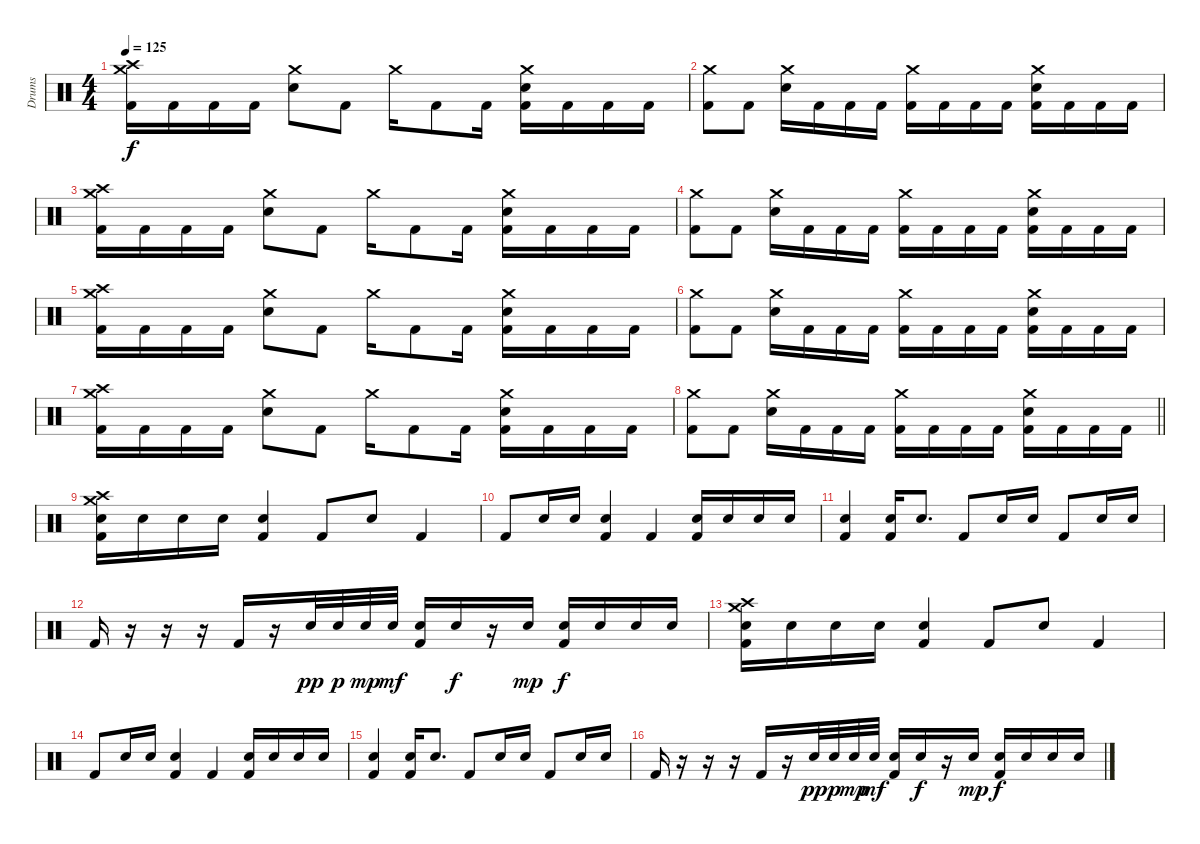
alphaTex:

\track ("Drums" "Drums") {instrument percussion}
\staff {score}
\articulation defaults
\ts (4 4)
\section ("" "")
\tempo 125
\clef neutral
\ks c
("Crash medium (hit)" "Crash high (hit)" "Kick (hit) 2").16{dy f} "Kick (hit) 2".16 "Kick (hit) 2".16 "Kick (hit) 2".16 ("Crash medium (hit)" "Snare (hit) 2").8 "Kick (hit) 2".8 "Crash medium (hit)".16 "Kick (hit) 2".8 "Kick (hit) 2".16 ("Crash medium (hit)" "Snare (hit) 2" "Kick (hit) 2").16 "Kick (hit) 2".16 "Kick (hit) 2".16 "Kick (hit) 2".16 |
("Crash medium (hit)" "Kick (hit) 2").8 "Kick (hit) 2".8 ("Crash medium (hit)" "Snare (hit) 2").16 "Kick (hit) 2".16 "Kick (hit) 2".16 "Kick (hit) 2".16 ("Crash medium (hit)" "Kick (hit) 2").16 "Kick (hit) 2".16 "Kick (hit) 2".16 "Kick (hit) 2".16 ("Crash medium (hit)" "Snare (hit) 2" "Kick (hit) 2").16 "Kick (hit) 2".16 "Kick (hit) 2".16 "Kick (hit) 2".16 |
("Crash medium (hit)" "Crash high (hit)" "Kick (hit) 2").16 "Kick (hit) 2".16 "Kick (hit) 2".16 "Kick (hit) 2".16 ("Crash medium (hit)" "Snare (hit) 2").8 "Kick (hit) 2".8 "Crash medium (hit)".16 "Kick (hit) 2".8 "Kick (hit) 2".16 ("Crash medium (hit)" "Snare (hit) 2" "Kick (hit) 2").16 "Kick (hit) 2".16 "Kick (hit) 2".16 "Kick (hit) 2".16 |
("Crash medium (hit)" "Kick (hit) 2").8 "Kick (hit) 2".8 ("Crash medium (hit)" "Snare (hit) 2").16 "Kick (hit) 2".16 "Kick (hit) 2".16 "Kick (hit) 2".16 ("Crash medium (hit)" "Kick (hit) 2").16 "Kick (hit) 2".16 "Kick (hit) 2".16 "Kick (hit) 2".16 ("Crash medium (hit)" "Snare (hit) 2" "Kick (hit) 2").16 "Kick (hit) 2".16 "Kick (hit) 2".16 "Kick (hit) 2".16 |
("Crash medium (hit)" "Crash high (hit)" "Kick (hit) 2").16 "Kick (hit) 2".16 "Kick (hit) 2".16 "Kick (hit) 2".16 ("Crash medium (hit)" "Snare (hit) 2").8 "Kick (hit) 2".8 "Crash medium (hit)".16 "Kick (hit) 2".8 "Kick (hit) 2".16 ("Crash medium (hit)" "Snare (hit) 2" "Kick (hit) 2").16 "Kick (hit) 2".16 "Kick (hit) 2".16 "Kick (hit) 2".16 |
("Crash medium (hit)" "Kick (hit) 2").8 "Kick (hit) 2".8 ("Crash medium (hit)" "Snare (hit) 2").16 "Kick (hit) 2".16 "Kick (hit) 2".16 "Kick (hit) 2".16 ("Crash medium (hit)" "Kick (hit) 2").16 "Kick (hit) 2".16 "Kick (hit) 2".16 "Kick (hit) 2".16 ("Crash medium (hit)" "Snare (hit) 2" "Kick (hit) 2").16 "Kick (hit) 2".16 "Kick (hit) 2".16 "Kick (hit) 2".16 |
("Crash medium (hit)" "Crash high (hit)" "Kick (hit) 2").16 "Kick (hit) 2".16 "Kick (hit) 2".16 "Kick (hit) 2".16 ("Crash medium (hit)" "Snare (hit) 2").8 "Kick (hit) 2".8 "Crash medium (hit)".16 "Kick (hit) 2".8 "Kick (hit) 2".16 ("Crash medium (hit)" "Snare (hit) 2" "Kick (hit) 2").16 "Kick (hit) 2".16 "Kick (hit) 2".16 "Kick (hit) 2".16 |
\barLineRight lightlight
("Crash medium (hit)" "Kick (hit) 2").8 "Kick (hit) 2".8 ("Crash medium (hit)" "Snare (hit) 2").16 "Kick (hit) 2".16 "Kick (hit) 2".16 "Kick (hit) 2".16 ("Crash medium (hit)" "Kick (hit) 2").16 "Kick (hit) 2".16 "Kick (hit) 2".16 "Kick (hit) 2".16 ("Crash medium (hit)" "Snare (hit) 2" "Kick (hit) 2").16 "Kick (hit) 2".16 "Kick (hit) 2".16 "Kick (hit) 2".16 |
\section ("" "")
("Crash medium (hit)" "Crash high (hit)" "Snare (hit) 2" "Kick (hit) 2").16 "Snare (hit) 2".16 "Snare (hit) 2".16 "Snare (hit) 2".16 ("Snare (hit) 2" "Kick (hit) 2").4 "Kick (hit) 2".8 "Snare (hit) 2".8 "Kick (hit) 2".4 |
"Kick (hit) 2".8 "Snare (hit) 2".16 "Snare (hit) 2".16 ("Snare (hit) 2" "Kick (hit) 2").4 "Kick (hit) 2".4 ("Snare (hit) 2" "Kick (hit) 2").16 "Snare (hit) 2".16 "Snare (hit) 2".16 "Snare (hit) 2".16 |
("Snare (hit) 2" "Kick (hit) 2").4 ("Snare (hit) 2" "Kick (hit) 2").16 "Snare (hit) 2".8{d} "Kick (hit) 2".8 "Snare (hit) 2".16 "Snare (hit) 2".16 "Kick (hit) 2".8 "Snare (hit) 2".16 "Snare (hit) 2".16 |
"Kick (hit) 2".16 r.16 r.16 r.16 "Kick (hit) 2".16 r.16 "Snare (hit) 2".32{dy pp} "Snare (hit) 2".32{dy p} "Snare (hit) 2".32{dy mp} "Snare (hit) 2".32{dy mf} ("Snare (hit) 2" "Kick (hit) 2").16 "Snare (hit) 2".16{dy f} r.16 "Snare (hit) 2".16{dy mp} ("Snare (hit) 2" "Kick (hit) 2").16{dy f} "Snare (hit) 2".16 "Snare (hit) 2".16 "Snare (hit) 2".16 |
("Crash medium (hit)" "Crash high (hit)" "Snare (hit) 2" "Kick (hit) 2").16 "Snare (hit) 2".16 "Snare (hit) 2".16 "Snare (hit) 2".16 ("Snare (hit) 2" "Kick (hit) 2").4 "Kick (hit) 2".8 "Snare (hit) 2".8 "Kick (hit) 2".4 |
"Kick (hit) 2".8 "Snare (hit) 2".16 "Snare (hit) 2".16 ("Snare (hit) 2" "Kick (hit) 2").4 "Kick (hit) 2".4 ("Snare (hit) 2" "Kick (hit) 2").16 "Snare (hit) 2".16 "Snare (hit) 2".16 "Snare (hit) 2".16 |
("Snare (hit) 2" "Kick (hit) 2").4 ("Snare (hit) 2" "Kick (hit) 2").16 "Snare (hit) 2".8{d} "Kick (hit) 2".8 "Snare (hit) 2".16 "Snare (hit) 2".16 "Kick (hit) 2".8 "Snare (hit) 2".16 "Snare (hit) 2".16 |
"Kick (hit) 2".16 r.16 r.16 r.16 "Kick (hit) 2".16 r.16 "Snare (hit) 2".32{dy pp} "Snare (hit) 2".32{dy p} "Snare (hit) 2".32{dy mp} "Snare (hit) 2".32{dy mf} ("Snare (hit) 2" "Kick (hit) 2").16 "Snare (hit) 2".16{dy f} r.16 "Snare (hit) 2".16{dy mp} ("Snare (hit) 2" "Kick (hit) 2").16{dy f} "Snare (hit) 2".16 "Snare (hit) 2".16 "Snare (hit) 2".16
